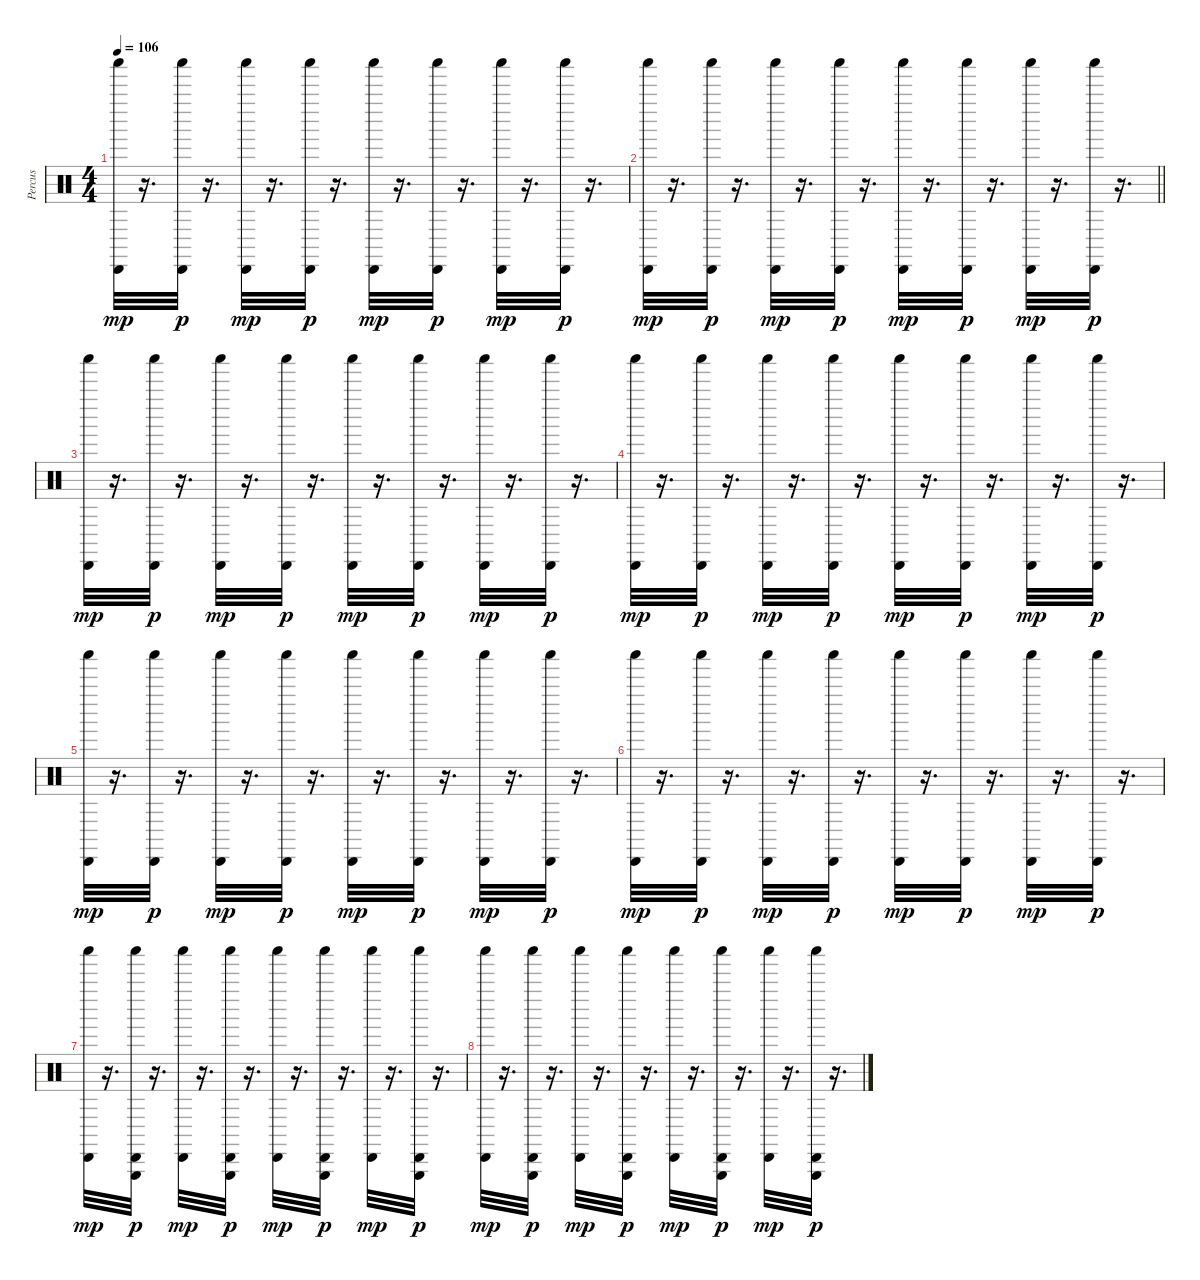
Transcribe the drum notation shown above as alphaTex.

\track ("Percus" "Percus") {instrument percussion}
\staff {score}
\articulation defaults
\ts (4 4)
\tempo 106
\clef neutral
\ks c
("Shaker (hit)" "Cabasa (hit)").32{dy mp} r.16{d} ("Shaker (hit)" "Cabasa (hit)").32{dy p} r.16{d} ("Shaker (hit)" "Cabasa (hit)").32{dy mp} r.16{d} ("Shaker (hit)" "Cabasa (hit)").32{dy p} r.16{d} ("Shaker (hit)" "Cabasa (hit)").32{dy mp} r.16{d} ("Shaker (hit)" "Cabasa (hit)").32{dy p} r.16{d} ("Shaker (hit)" "Cabasa (hit)").32{dy mp} r.16{d} ("Shaker (hit)" "Cabasa (hit)").32{dy p} r.16{d} |
\barLineRight lightlight
("Shaker (hit)" "Cabasa (hit)").32{dy mp} r.16{d} ("Shaker (hit)" "Cabasa (hit)").32{dy p} r.16{d} ("Shaker (hit)" "Cabasa (hit)").32{dy mp} r.16{d} ("Shaker (hit)" "Cabasa (hit)").32{dy p} r.16{d} ("Shaker (hit)" "Cabasa (hit)").32{dy mp} r.16{d} ("Shaker (hit)" "Cabasa (hit)").32{dy p} r.16{d} ("Shaker (hit)" "Cabasa (hit)").32{dy mp} r.16{d} ("Shaker (hit)" "Cabasa (hit)").32{dy p} r.16{d} |
("Shaker (hit)" "Cabasa (hit)").32{dy mp} r.16{d} ("Shaker (hit)" "Cabasa (hit)").32{dy p} r.16{d} ("Shaker (hit)" "Cabasa (hit)").32{dy mp} r.16{d} ("Shaker (hit)" "Cabasa (hit)").32{dy p} r.16{d} ("Shaker (hit)" "Cabasa (hit)").32{dy mp} r.16{d} ("Shaker (hit)" "Cabasa (hit)").32{dy p} r.16{d} ("Shaker (hit)" "Cabasa (hit)").32{dy mp} r.16{d} ("Shaker (hit)" "Cabasa (hit)").32{dy p} r.16{d} |
("Shaker (hit)" "Cabasa (hit)").32{dy mp} r.16{d} ("Shaker (hit)" "Cabasa (hit)").32{dy p} r.16{d} ("Shaker (hit)" "Cabasa (hit)").32{dy mp} r.16{d} ("Shaker (hit)" "Cabasa (hit)").32{dy p} r.16{d} ("Shaker (hit)" "Cabasa (hit)").32{dy mp} r.16{d} ("Shaker (hit)" "Cabasa (hit)").32{dy p} r.16{d} ("Shaker (hit)" "Cabasa (hit)").32{dy mp} r.16{d} ("Shaker (hit)" "Cabasa (hit)").32{dy p} r.16{d} |
("Shaker (hit)" "Cabasa (hit)").32{dy mp} r.16{d} ("Shaker (hit)" "Cabasa (hit)").32{dy p} r.16{d} ("Shaker (hit)" "Cabasa (hit)").32{dy mp} r.16{d} ("Shaker (hit)" "Cabasa (hit)").32{dy p} r.16{d} ("Shaker (hit)" "Cabasa (hit)").32{dy mp} r.16{d} ("Shaker (hit)" "Cabasa (hit)").32{dy p} r.16{d} ("Shaker (hit)" "Cabasa (hit)").32{dy mp} r.16{d} ("Shaker (hit)" "Cabasa (hit)").32{dy p} r.16{d} |
("Shaker (hit)" "Cabasa (hit)").32{dy mp} r.16{d} ("Shaker (hit)" "Cabasa (hit)").32{dy p} r.16{d} ("Shaker (hit)" "Cabasa (hit)").32{dy mp} r.16{d} ("Shaker (hit)" "Cabasa (hit)").32{dy p} r.16{d} ("Shaker (hit)" "Cabasa (hit)").32{dy mp} r.16{d} ("Shaker (hit)" "Cabasa (hit)").32{dy p} r.16{d} ("Shaker (hit)" "Cabasa (hit)").32{dy mp} r.16{d} ("Shaker (hit)" "Cabasa (hit)").32{dy p} r.16{d} |
("Shaker (hit)" "Cabasa (hit)").32{dy mp} r.16{d} ("Triangle (hit)" "Shaker (hit)" "Cabasa (hit)").32{dy p} r.16{d} ("Shaker (hit)" "Cabasa (hit)").32{dy mp} r.16{d} ("Triangle (hit)" "Shaker (hit)" "Cabasa (hit)").32{dy p} r.16{d} ("Shaker (hit)" "Cabasa (hit)").32{dy mp} r.16{d} ("Triangle (hit)" "Shaker (hit)" "Cabasa (hit)").32{dy p} r.16{d} ("Shaker (hit)" "Cabasa (hit)").32{dy mp} r.16{d} ("Triangle (hit)" "Shaker (hit)" "Cabasa (hit)").32{dy p} r.16{d} |
("Shaker (hit)" "Cabasa (hit)").32{dy mp} r.16{d} ("Triangle (hit)" "Shaker (hit)" "Cabasa (hit)").32{dy p} r.16{d} ("Shaker (hit)" "Cabasa (hit)").32{dy mp} r.16{d} ("Triangle (hit)" "Shaker (hit)" "Cabasa (hit)").32{dy p} r.16{d} ("Shaker (hit)" "Cabasa (hit)").32{dy mp} r.16{d} ("Triangle (hit)" "Shaker (hit)" "Cabasa (hit)").32{dy p} r.16{d} ("Shaker (hit)" "Cabasa (hit)").32{dy mp} r.16{d} ("Triangle (hit)" "Shaker (hit)" "Cabasa (hit)").32{dy p} r.16{d}
